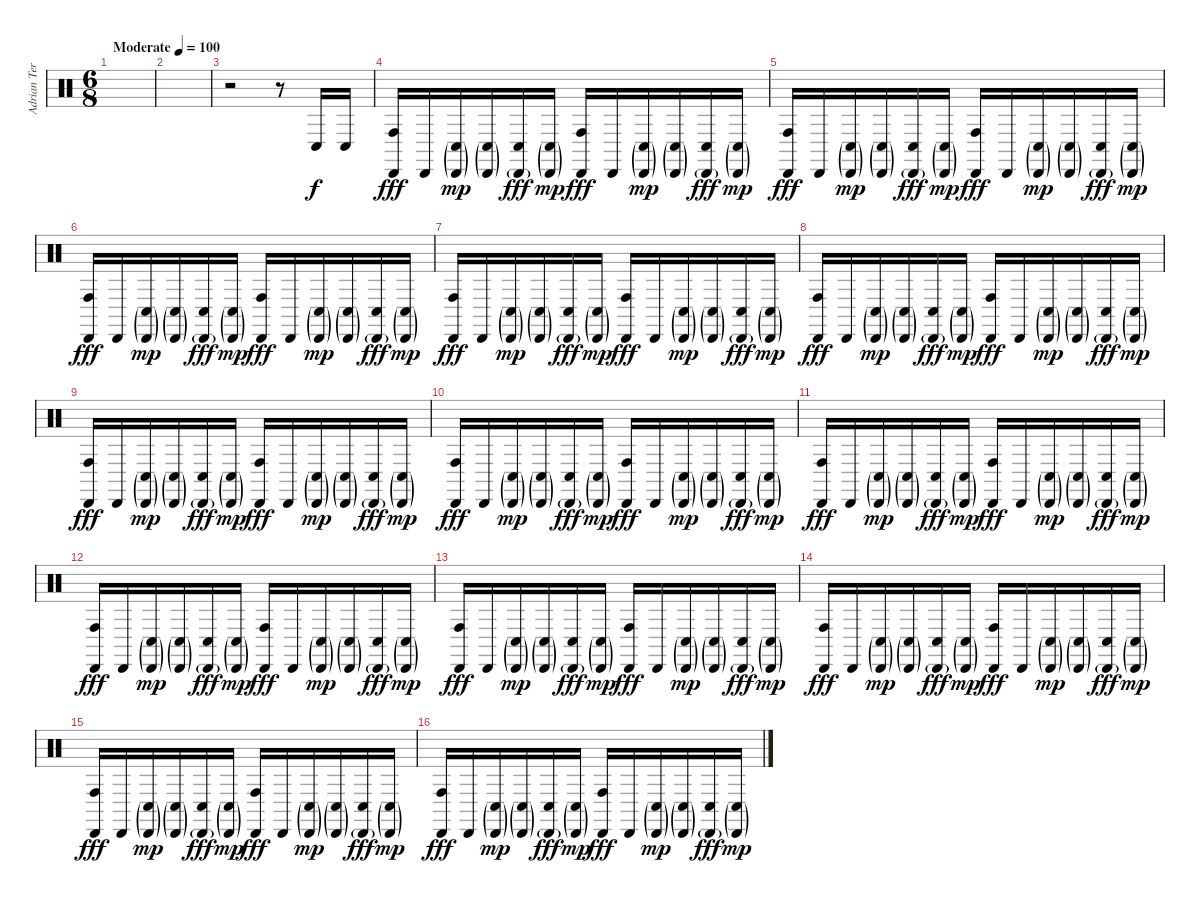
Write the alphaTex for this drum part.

\track ("Adrian Terrazas" "Adrian Ter") {instrument percussion}
\staff {score}
\articulation defaults
\ts (6 8)
\tempo (100 "Moderate")
\clef neutral
\ks c
|
|
r.2 r.8 "Conga low (hit)".16 "Conga low (hit)".16 |
("Cabasa (hit)" "Conga high (hit)").16{dy fff} "Cabasa (hit)".16 ("Cabasa (hit)"{g} "Conga low (hit)"{g}).16{dy mp} ("Cabasa (hit)"{g} "Conga low (hit)"{g}).16 ("Cabasa (hit)"{g} "Conga low (hit)").16{dy fff} ("Cabasa (hit)"{g} "Conga low (hit)"{g}).16{dy mp} ("Cabasa (hit)" "Conga high (hit)").16{dy fff} "Cabasa (hit)".16 ("Cabasa (hit)"{g} "Conga low (hit)"{g}).16{dy mp} ("Cabasa (hit)"{g} "Conga low (hit)"{g}).16 ("Cabasa (hit)"{g} "Conga low (hit)").16{dy fff} ("Cabasa (hit)"{g} "Conga low (hit)"{g}).16{dy mp} |
("Cabasa (hit)" "Conga high (hit)").16{dy fff} "Cabasa (hit)".16 ("Cabasa (hit)"{g} "Conga low (hit)"{g}).16{dy mp} ("Cabasa (hit)"{g} "Conga low (hit)"{g}).16 ("Cabasa (hit)"{g} "Conga low (hit)").16{dy fff} ("Cabasa (hit)"{g} "Conga low (hit)"{g}).16{dy mp} ("Cabasa (hit)" "Conga high (hit)").16{dy fff} "Cabasa (hit)".16 ("Cabasa (hit)"{g} "Conga low (hit)"{g}).16{dy mp} ("Cabasa (hit)"{g} "Conga low (hit)"{g}).16 ("Cabasa (hit)"{g} "Conga low (hit)").16{dy fff} ("Cabasa (hit)"{g} "Conga low (hit)"{g}).16{dy mp} |
("Cabasa (hit)" "Conga high (hit)").16{dy fff} "Cabasa (hit)".16 ("Cabasa (hit)"{g} "Conga low (hit)"{g}).16{dy mp} ("Cabasa (hit)"{g} "Conga low (hit)"{g}).16 ("Cabasa (hit)"{g} "Conga low (hit)").16{dy fff} ("Cabasa (hit)"{g} "Conga low (hit)"{g}).16{dy mp} ("Cabasa (hit)" "Conga high (hit)").16{dy fff} "Cabasa (hit)".16 ("Cabasa (hit)"{g} "Conga low (hit)"{g}).16{dy mp} ("Cabasa (hit)"{g} "Conga low (hit)"{g}).16 ("Cabasa (hit)"{g} "Conga low (hit)").16{dy fff} ("Cabasa (hit)"{g} "Conga low (hit)"{g}).16{dy mp} |
("Cabasa (hit)" "Conga high (hit)").16{dy fff} "Cabasa (hit)".16 ("Cabasa (hit)"{g} "Conga low (hit)"{g}).16{dy mp} ("Cabasa (hit)"{g} "Conga low (hit)"{g}).16 ("Cabasa (hit)"{g} "Conga low (hit)").16{dy fff} ("Cabasa (hit)"{g} "Conga low (hit)"{g}).16{dy mp} ("Cabasa (hit)" "Conga high (hit)").16{dy fff} "Cabasa (hit)".16 ("Cabasa (hit)"{g} "Conga low (hit)"{g}).16{dy mp} ("Cabasa (hit)"{g} "Conga low (hit)"{g}).16 ("Cabasa (hit)"{g} "Conga low (hit)").16{dy fff} ("Cabasa (hit)"{g} "Conga low (hit)"{g}).16{dy mp} |
("Cabasa (hit)" "Conga high (hit)").16{dy fff} "Cabasa (hit)".16 ("Cabasa (hit)"{g} "Conga low (hit)"{g}).16{dy mp} ("Cabasa (hit)"{g} "Conga low (hit)"{g}).16 ("Cabasa (hit)"{g} "Conga low (hit)").16{dy fff} ("Cabasa (hit)"{g} "Conga low (hit)"{g}).16{dy mp} ("Cabasa (hit)" "Conga high (hit)").16{dy fff} "Cabasa (hit)".16 ("Cabasa (hit)"{g} "Conga low (hit)"{g}).16{dy mp} ("Cabasa (hit)"{g} "Conga low (hit)"{g}).16 ("Cabasa (hit)"{g} "Conga low (hit)").16{dy fff} ("Cabasa (hit)"{g} "Conga low (hit)"{g}).16{dy mp} |
("Cabasa (hit)" "Conga high (hit)").16{dy fff} "Cabasa (hit)".16 ("Cabasa (hit)"{g} "Conga low (hit)"{g}).16{dy mp} ("Cabasa (hit)"{g} "Conga low (hit)"{g}).16 ("Cabasa (hit)"{g} "Conga low (hit)").16{dy fff} ("Cabasa (hit)"{g} "Conga low (hit)"{g}).16{dy mp} ("Cabasa (hit)" "Conga high (hit)").16{dy fff} "Cabasa (hit)".16 ("Cabasa (hit)"{g} "Conga low (hit)"{g}).16{dy mp} ("Cabasa (hit)"{g} "Conga low (hit)"{g}).16 ("Cabasa (hit)"{g} "Conga low (hit)").16{dy fff} ("Cabasa (hit)"{g} "Conga low (hit)"{g}).16{dy mp} |
("Cabasa (hit)" "Conga high (hit)").16{dy fff} "Cabasa (hit)".16 ("Cabasa (hit)"{g} "Conga low (hit)"{g}).16{dy mp} ("Cabasa (hit)"{g} "Conga low (hit)"{g}).16 ("Cabasa (hit)"{g} "Conga low (hit)").16{dy fff} ("Cabasa (hit)"{g} "Conga low (hit)"{g}).16{dy mp} ("Cabasa (hit)" "Conga high (hit)").16{dy fff} "Cabasa (hit)".16 ("Cabasa (hit)"{g} "Conga low (hit)"{g}).16{dy mp} ("Cabasa (hit)"{g} "Conga low (hit)"{g}).16 ("Cabasa (hit)"{g} "Conga low (hit)").16{dy fff} ("Cabasa (hit)"{g} "Conga low (hit)"{g}).16{dy mp} |
("Cabasa (hit)" "Conga high (hit)").16{dy fff} "Cabasa (hit)".16 ("Cabasa (hit)"{g} "Conga low (hit)"{g}).16{dy mp} ("Cabasa (hit)"{g} "Conga low (hit)"{g}).16 ("Cabasa (hit)"{g} "Conga low (hit)").16{dy fff} ("Cabasa (hit)"{g} "Conga low (hit)"{g}).16{dy mp} ("Cabasa (hit)" "Conga high (hit)").16{dy fff} "Cabasa (hit)".16 ("Cabasa (hit)"{g} "Conga low (hit)"{g}).16{dy mp} ("Cabasa (hit)"{g} "Conga low (hit)"{g}).16 ("Cabasa (hit)"{g} "Conga low (hit)").16{dy fff} ("Cabasa (hit)"{g} "Conga low (hit)"{g}).16{dy mp} |
("Cabasa (hit)" "Conga high (hit)").16{dy fff} "Cabasa (hit)".16 ("Cabasa (hit)"{g} "Conga low (hit)"{g}).16{dy mp} ("Cabasa (hit)"{g} "Conga low (hit)"{g}).16 ("Cabasa (hit)"{g} "Conga low (hit)").16{dy fff} ("Cabasa (hit)"{g} "Conga low (hit)"{g}).16{dy mp} ("Cabasa (hit)" "Conga high (hit)").16{dy fff} "Cabasa (hit)".16 ("Cabasa (hit)"{g} "Conga low (hit)"{g}).16{dy mp} ("Cabasa (hit)"{g} "Conga low (hit)"{g}).16 ("Cabasa (hit)"{g} "Conga low (hit)").16{dy fff} ("Cabasa (hit)"{g} "Conga low (hit)"{g}).16{dy mp} |
("Cabasa (hit)" "Conga high (hit)").16{dy fff} "Cabasa (hit)".16 ("Cabasa (hit)"{g} "Conga low (hit)"{g}).16{dy mp} ("Cabasa (hit)"{g} "Conga low (hit)"{g}).16 ("Cabasa (hit)"{g} "Conga low (hit)").16{dy fff} ("Cabasa (hit)"{g} "Conga low (hit)"{g}).16{dy mp} ("Cabasa (hit)" "Conga high (hit)").16{dy fff} "Cabasa (hit)".16 ("Cabasa (hit)"{g} "Conga low (hit)"{g}).16{dy mp} ("Cabasa (hit)"{g} "Conga low (hit)"{g}).16 ("Cabasa (hit)"{g} "Conga low (hit)").16{dy fff} ("Cabasa (hit)"{g} "Conga low (hit)"{g}).16{dy mp} |
("Cabasa (hit)" "Conga high (hit)").16{dy fff} "Cabasa (hit)".16 ("Cabasa (hit)"{g} "Conga low (hit)"{g}).16{dy mp} ("Cabasa (hit)"{g} "Conga low (hit)"{g}).16 ("Cabasa (hit)"{g} "Conga low (hit)").16{dy fff} ("Cabasa (hit)"{g} "Conga low (hit)"{g}).16{dy mp} ("Cabasa (hit)" "Conga high (hit)").16{dy fff} "Cabasa (hit)".16 ("Cabasa (hit)"{g} "Conga low (hit)"{g}).16{dy mp} ("Cabasa (hit)"{g} "Conga low (hit)"{g}).16 ("Cabasa (hit)"{g} "Conga low (hit)").16{dy fff} ("Cabasa (hit)"{g} "Conga low (hit)"{g}).16{dy mp} |
("Cabasa (hit)" "Conga high (hit)").16{dy fff} "Cabasa (hit)".16 ("Cabasa (hit)"{g} "Conga low (hit)"{g}).16{dy mp} ("Cabasa (hit)"{g} "Conga low (hit)"{g}).16 ("Cabasa (hit)"{g} "Conga low (hit)").16{dy fff} ("Cabasa (hit)"{g} "Conga low (hit)"{g}).16{dy mp} ("Cabasa (hit)" "Conga high (hit)").16{dy fff} "Cabasa (hit)".16 ("Cabasa (hit)"{g} "Conga low (hit)"{g}).16{dy mp} ("Cabasa (hit)"{g} "Conga low (hit)"{g}).16 ("Cabasa (hit)"{g} "Conga low (hit)").16{dy fff} ("Cabasa (hit)"{g} "Conga low (hit)"{g}).16{dy mp} |
("Cabasa (hit)" "Conga high (hit)").16{dy fff} "Cabasa (hit)".16 ("Cabasa (hit)"{g} "Conga low (hit)"{g}).16{dy mp} ("Cabasa (hit)"{g} "Conga low (hit)"{g}).16 ("Cabasa (hit)"{g} "Conga low (hit)").16{dy fff} ("Cabasa (hit)"{g} "Conga low (hit)"{g}).16{dy mp} ("Cabasa (hit)" "Conga high (hit)").16{dy fff} "Cabasa (hit)".16 ("Cabasa (hit)"{g} "Conga low (hit)"{g}).16{dy mp} ("Cabasa (hit)"{g} "Conga low (hit)"{g}).16 ("Cabasa (hit)"{g} "Conga low (hit)").16{dy fff} ("Cabasa (hit)"{g} "Conga low (hit)"{g}).16{dy mp}
